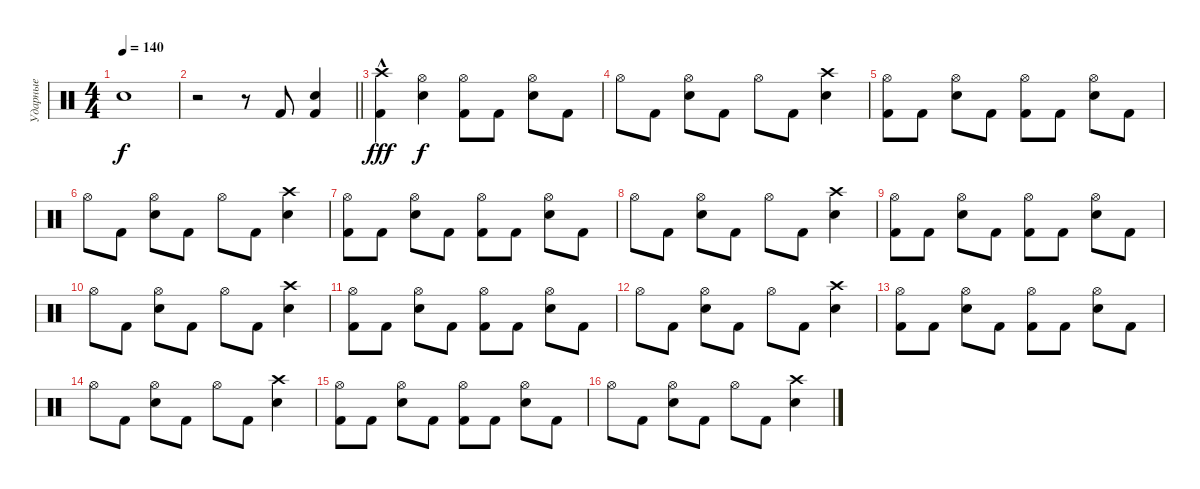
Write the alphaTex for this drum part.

\track ("Ударные" "Ударные") {instrument percussion}
\staff {score}
\articulation defaults
\ts (4 4)
\tempo 140
\clef neutral
\ks c "Snare (hit)"{t}.1{dy f}
|
\barLineRight lightlight
r.2 r.8 "Kick (hit) 2".8 ("Kick (hit) 2" "Snare (hit) 2").4 |
("Kick (hit) 2" "Crash high (hit)"{hac}).4{dy fff} ("Snare (hit) 2" "Hi-Hat (open)").4{dy f} ("Kick (hit) 2" "Hi-Hat (open)").8 "Kick (hit) 2".8 ("Snare (hit) 2" "Hi-Hat (open)").8 "Kick (hit) 2".8 |
"Hi-Hat (open)".8 "Kick (hit) 2".8 ("Snare (hit) 2" "Hi-Hat (open)").8 "Kick (hit) 2".8 "Hi-Hat (open)".8 "Kick (hit) 2".8 ("Snare (hit) 2" "Crash high (hit)").4 |
("Kick (hit) 2" "Hi-Hat (open)").8 "Kick (hit) 2".8 ("Snare (hit) 2" "Hi-Hat (open)").8 "Kick (hit) 2".8 ("Kick (hit) 2" "Hi-Hat (open)").8 "Kick (hit) 2".8 ("Snare (hit) 2" "Hi-Hat (open)").8 "Kick (hit) 2".8 |
"Hi-Hat (open)".8 "Kick (hit) 2".8 ("Snare (hit) 2" "Hi-Hat (open)").8 "Kick (hit) 2".8 "Hi-Hat (open)".8 "Kick (hit) 2".8 ("Snare (hit) 2" "Crash high (hit)").4 |
("Kick (hit) 2" "Hi-Hat (open)").8 "Kick (hit) 2".8 ("Snare (hit) 2" "Hi-Hat (open)").8 "Kick (hit) 2".8 ("Kick (hit) 2" "Hi-Hat (open)").8 "Kick (hit) 2".8 ("Snare (hit) 2" "Hi-Hat (open)").8 "Kick (hit) 2".8 |
"Hi-Hat (open)".8 "Kick (hit) 2".8 ("Snare (hit) 2" "Hi-Hat (open)").8 "Kick (hit) 2".8 "Hi-Hat (open)".8 "Kick (hit) 2".8 ("Snare (hit) 2" "Crash high (hit)").4 |
("Kick (hit) 2" "Hi-Hat (open)").8 "Kick (hit) 2".8 ("Snare (hit) 2" "Hi-Hat (open)").8 "Kick (hit) 2".8 ("Kick (hit) 2" "Hi-Hat (open)").8 "Kick (hit) 2".8 ("Snare (hit) 2" "Hi-Hat (open)").8 "Kick (hit) 2".8 |
"Hi-Hat (open)".8 "Kick (hit) 2".8 ("Snare (hit) 2" "Hi-Hat (open)").8 "Kick (hit) 2".8 "Hi-Hat (open)".8 "Kick (hit) 2".8 ("Snare (hit) 2" "Crash high (hit)").4 |
("Kick (hit) 2" "Hi-Hat (open)").8 "Kick (hit) 2".8 ("Snare (hit) 2" "Hi-Hat (open)").8 "Kick (hit) 2".8 ("Kick (hit) 2" "Hi-Hat (open)").8 "Kick (hit) 2".8 ("Snare (hit) 2" "Hi-Hat (open)").8 "Kick (hit) 2".8 |
"Hi-Hat (open)".8 "Kick (hit) 2".8 ("Snare (hit) 2" "Hi-Hat (open)").8 "Kick (hit) 2".8 "Hi-Hat (open)".8 "Kick (hit) 2".8 ("Snare (hit) 2" "Crash high (hit)").4 |
("Kick (hit) 2" "Hi-Hat (open)").8 "Kick (hit) 2".8 ("Snare (hit) 2" "Hi-Hat (open)").8 "Kick (hit) 2".8 ("Kick (hit) 2" "Hi-Hat (open)").8 "Kick (hit) 2".8 ("Snare (hit) 2" "Hi-Hat (open)").8 "Kick (hit) 2".8 |
"Hi-Hat (open)".8 "Kick (hit) 2".8 ("Snare (hit) 2" "Hi-Hat (open)").8 "Kick (hit) 2".8 "Hi-Hat (open)".8 "Kick (hit) 2".8 ("Snare (hit) 2" "Crash high (hit)").4 |
("Kick (hit) 2" "Hi-Hat (open)").8 "Kick (hit) 2".8 ("Snare (hit) 2" "Hi-Hat (open)").8 "Kick (hit) 2".8 ("Kick (hit) 2" "Hi-Hat (open)").8 "Kick (hit) 2".8 ("Snare (hit) 2" "Hi-Hat (open)").8 "Kick (hit) 2".8 |
"Hi-Hat (open)".8 "Kick (hit) 2".8 ("Snare (hit) 2" "Hi-Hat (open)").8 "Kick (hit) 2".8 "Hi-Hat (open)".8 "Kick (hit) 2".8 ("Snare (hit) 2" "Crash high (hit)").4
